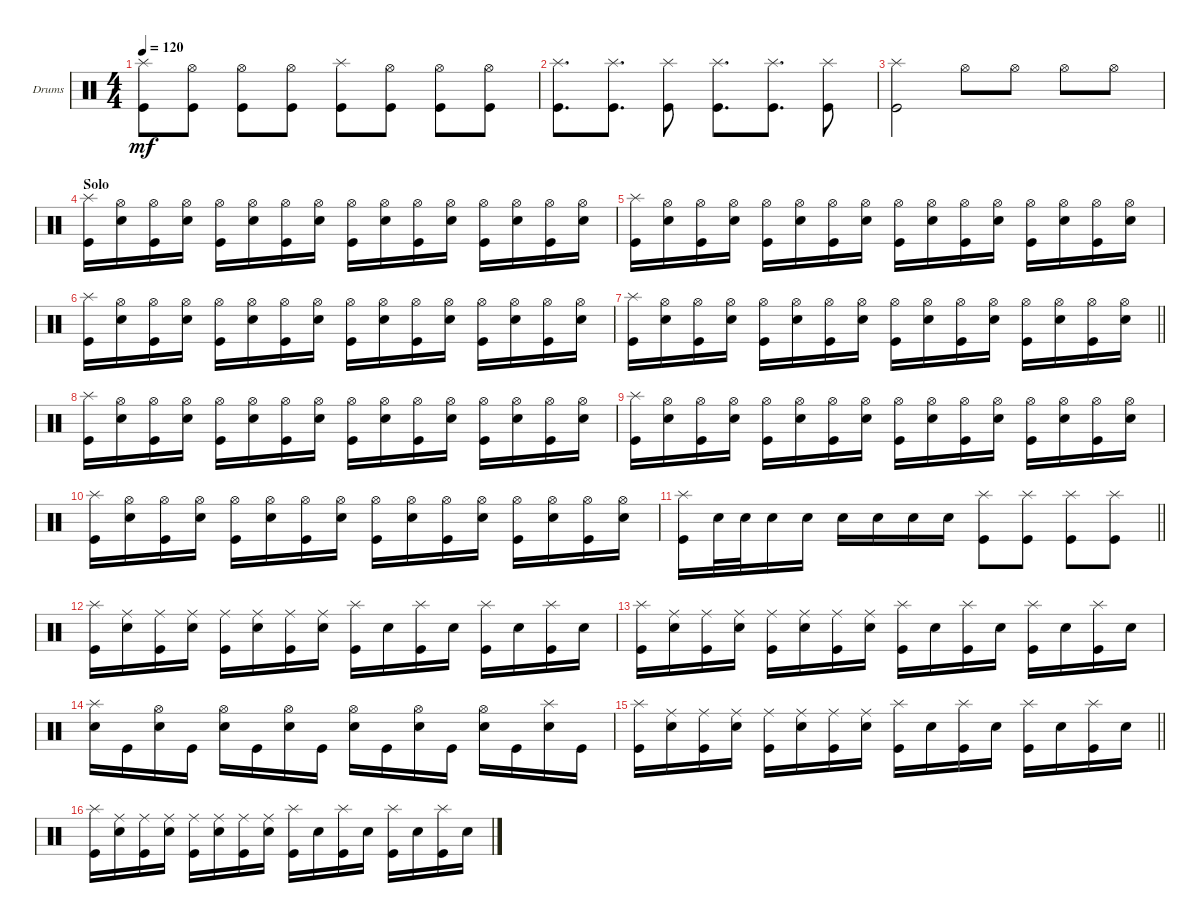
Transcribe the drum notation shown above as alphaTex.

\defaultSystemsLayout 4
\bracketExtendMode groupsimilarinstruments
\firstSystemTrackNameOrientation horizontal
\otherSystemsTrackNameOrientation horizontal
\track ("Drumkit" "Drums") {instrument percussion}
\staff {score}
\articulation defaults
\ts (4 4)
\tempo 120
\clef neutral
\ks c
("Kick (hit)" "Splash (hit)").8{dy mf} ("Kick (hit)" "Hi-Hat (open)").8 ("Kick (hit)" "Hi-Hat (open)").8 ("Kick (hit)" "Hi-Hat (open)").8 ("Kick (hit)" "Splash (hit)").8 ("Kick (hit)" "Hi-Hat (open)").8 ("Kick (hit)" "Hi-Hat (open)").8 ("Kick (hit)" "Hi-Hat (open)").8 |
("Kick (hit)" "Splash (hit)").8{d} ("Kick (hit)" "Splash (hit)").8{d} ("Kick (hit)" "Splash (hit)").8 ("Kick (hit)" "Splash (hit)").8{d} ("Kick (hit)" "Splash (hit)").8{d} ("Kick (hit)" "Splash (hit)").8 |
("Splash (hit)" "Kick (hit)").2 "Hi-Hat (open)".8 "Hi-Hat (open)".8 "Hi-Hat (open)".8 "Hi-Hat (open)".8 |
\section ("" "Solo")
("Kick (hit)" "Splash (hit)").16 ("Snare (hit) 2" "Hi-Hat (open)").16 ("Kick (hit)" "Hi-Hat (open)").16 ("Snare (hit) 2" "Hi-Hat (open)").16 ("Kick (hit)" "Hi-Hat (open)").16 ("Snare (hit) 2" "Hi-Hat (open)").16 ("Kick (hit)" "Hi-Hat (open)").16 ("Snare (hit) 2" "Hi-Hat (open)").16 ("Kick (hit)" "Hi-Hat (open)").16 ("Snare (hit) 2" "Hi-Hat (open)").16 ("Kick (hit)" "Hi-Hat (open)").16 ("Snare (hit) 2" "Hi-Hat (open)").16 ("Kick (hit)" "Hi-Hat (open)").16 ("Snare (hit) 2" "Hi-Hat (open)").16 ("Kick (hit)" "Hi-Hat (open)").16 ("Snare (hit) 2" "Hi-Hat (open)").16 |
("Kick (hit)" "Splash (hit)").16 ("Snare (hit) 2" "Hi-Hat (open)").16 ("Kick (hit)" "Hi-Hat (open)").16 ("Snare (hit) 2" "Hi-Hat (open)").16 ("Kick (hit)" "Hi-Hat (open)").16 ("Snare (hit) 2" "Hi-Hat (open)").16 ("Kick (hit)" "Hi-Hat (open)").16 ("Snare (hit) 2" "Hi-Hat (open)").16 ("Kick (hit)" "Hi-Hat (open)").16 ("Snare (hit) 2" "Hi-Hat (open)").16 ("Kick (hit)" "Hi-Hat (open)").16 ("Snare (hit) 2" "Hi-Hat (open)").16 ("Kick (hit)" "Hi-Hat (open)").16 ("Snare (hit) 2" "Hi-Hat (open)").16 ("Kick (hit)" "Hi-Hat (open)").16 ("Snare (hit) 2" "Hi-Hat (open)").16 |
("Kick (hit)" "Splash (hit)").16 ("Snare (hit) 2" "Hi-Hat (open)").16 ("Kick (hit)" "Hi-Hat (open)").16 ("Snare (hit) 2" "Hi-Hat (open)").16 ("Kick (hit)" "Hi-Hat (open)").16 ("Snare (hit) 2" "Hi-Hat (open)").16 ("Kick (hit)" "Hi-Hat (open)").16 ("Snare (hit) 2" "Hi-Hat (open)").16 ("Kick (hit)" "Hi-Hat (open)").16 ("Snare (hit) 2" "Hi-Hat (open)").16 ("Kick (hit)" "Hi-Hat (open)").16 ("Snare (hit) 2" "Hi-Hat (open)").16 ("Kick (hit)" "Hi-Hat (open)").16 ("Snare (hit) 2" "Hi-Hat (open)").16 ("Kick (hit)" "Hi-Hat (open)").16 ("Snare (hit) 2" "Hi-Hat (open)").16 |
\barLineRight lightlight
("Kick (hit)" "Splash (hit)").16 ("Snare (hit) 2" "Hi-Hat (open)").16 ("Kick (hit)" "Hi-Hat (open)").16 ("Snare (hit) 2" "Hi-Hat (open)").16 ("Kick (hit)" "Hi-Hat (open)").16 ("Snare (hit) 2" "Hi-Hat (open)").16 ("Kick (hit)" "Hi-Hat (open)").16 ("Snare (hit) 2" "Hi-Hat (open)").16 ("Kick (hit)" "Hi-Hat (open)").16 ("Snare (hit) 2" "Hi-Hat (open)").16 ("Kick (hit)" "Hi-Hat (open)").16 ("Snare (hit) 2" "Hi-Hat (open)").16 ("Kick (hit)" "Hi-Hat (open)").16 ("Snare (hit) 2" "Hi-Hat (open)").16 ("Kick (hit)" "Hi-Hat (open)").16 ("Snare (hit) 2" "Hi-Hat (open)").16 |
("Kick (hit)" "Splash (hit)").16 ("Snare (hit) 2" "Hi-Hat (open)").16 ("Kick (hit)" "Hi-Hat (open)").16 ("Snare (hit) 2" "Hi-Hat (open)").16 ("Kick (hit)" "Hi-Hat (open)").16 ("Snare (hit) 2" "Hi-Hat (open)").16 ("Kick (hit)" "Hi-Hat (open)").16 ("Snare (hit) 2" "Hi-Hat (open)").16 ("Kick (hit)" "Hi-Hat (open)").16 ("Snare (hit) 2" "Hi-Hat (open)").16 ("Kick (hit)" "Hi-Hat (open)").16 ("Snare (hit) 2" "Hi-Hat (open)").16 ("Kick (hit)" "Hi-Hat (open)").16 ("Snare (hit) 2" "Hi-Hat (open)").16 ("Kick (hit)" "Hi-Hat (open)").16 ("Snare (hit) 2" "Hi-Hat (open)").16 |
("Kick (hit)" "Splash (hit)").16 ("Snare (hit) 2" "Hi-Hat (open)").16 ("Kick (hit)" "Hi-Hat (open)").16 ("Snare (hit) 2" "Hi-Hat (open)").16 ("Kick (hit)" "Hi-Hat (open)").16 ("Snare (hit) 2" "Hi-Hat (open)").16 ("Kick (hit)" "Hi-Hat (open)").16 ("Snare (hit) 2" "Hi-Hat (open)").16 ("Kick (hit)" "Hi-Hat (open)").16 ("Snare (hit) 2" "Hi-Hat (open)").16 ("Kick (hit)" "Hi-Hat (open)").16 ("Snare (hit) 2" "Hi-Hat (open)").16 ("Kick (hit)" "Hi-Hat (open)").16 ("Snare (hit) 2" "Hi-Hat (open)").16 ("Kick (hit)" "Hi-Hat (open)").16 ("Snare (hit) 2" "Hi-Hat (open)").16 |
("Kick (hit)" "Splash (hit)").16 ("Snare (hit) 2" "Hi-Hat (open)").16 ("Kick (hit)" "Hi-Hat (open)").16 ("Snare (hit) 2" "Hi-Hat (open)").16 ("Kick (hit)" "Hi-Hat (open)").16 ("Snare (hit) 2" "Hi-Hat (open)").16 ("Kick (hit)" "Hi-Hat (open)").16 ("Snare (hit) 2" "Hi-Hat (open)").16 ("Kick (hit)" "Hi-Hat (open)").16 ("Snare (hit) 2" "Hi-Hat (open)").16 ("Kick (hit)" "Hi-Hat (open)").16 ("Snare (hit) 2" "Hi-Hat (open)").16 ("Kick (hit)" "Hi-Hat (open)").16 ("Snare (hit) 2" "Hi-Hat (open)").16 ("Kick (hit)" "Hi-Hat (open)").16 ("Snare (hit) 2" "Hi-Hat (open)").16 |
\barLineRight lightlight
("Kick (hit)" "Splash (hit)").16 "Snare (hit) 2".32 "Snare (hit) 2".32 "Snare (hit) 2".16 "Snare (hit) 2".16 "Snare (hit) 2".16 "Snare (hit) 2".16 "Snare (hit) 2".16 "Snare (hit) 2".16 ("Kick (hit)" "Splash (hit)").8 ("Kick (hit)" "Splash (hit)").8 ("Kick (hit)" "Splash (hit)").8 ("Kick (hit)" "Splash (hit)").8 |
("Kick (hit)" "Splash (hit)").16 ("Snare (hit) 2" "Ride (middle)").16 ("Kick (hit)" "Ride (middle)").16 ("Snare (hit) 2" "Ride (middle)").16 ("Kick (hit)" "Ride (middle)").16 ("Snare (hit) 2" "Ride (middle)").16 ("Kick (hit)" "Ride (middle)").16 ("Snare (hit) 2" "Ride (middle)").16 ("Kick (hit)" "Splash (hit)").16 "Snare (hit) 2".16 ("Kick (hit)" "Splash (hit)").16 "Snare (hit) 2".16 ("Kick (hit)" "Splash (hit)").16 "Snare (hit) 2".16 ("Kick (hit)" "Splash (hit)").16 "Snare (hit) 2".16 |
("Kick (hit)" "Splash (hit)").16 ("Snare (hit) 2" "Ride (middle)").16 ("Kick (hit)" "Ride (middle)").16 ("Snare (hit) 2" "Ride (middle)").16 ("Kick (hit)" "Ride (middle)").16 ("Snare (hit) 2" "Ride (middle)").16 ("Kick (hit)" "Ride (middle)").16 ("Snare (hit) 2" "Ride (middle)").16 ("Kick (hit)" "Splash (hit)").16 "Snare (hit) 2".16 ("Kick (hit)" "Splash (hit)").16 "Snare (hit) 2".16 ("Kick (hit)" "Splash (hit)").16 "Snare (hit) 2".16 ("Kick (hit)" "Splash (hit)").16 "Snare (hit) 2".16 |
("Snare (hit) 2" "Splash (hit)").16 "Kick (hit)".16 ("Snare (hit) 2" "Hi-Hat (open)").16 "Kick (hit)".16 ("Snare (hit) 2" "Hi-Hat (open)").16 "Kick (hit)".16 ("Snare (hit) 2" "Hi-Hat (open)").16 "Kick (hit)".16 ("Snare (hit) 2" "Hi-Hat (open)").16 "Kick (hit)".16 ("Snare (hit) 2" "Hi-Hat (open)").16 "Kick (hit)".16 ("Snare (hit) 2" "Hi-Hat (open)").16 "Kick (hit)".16 ("Snare (hit) 2" "Splash (hit)").16 "Kick (hit)".16 |
\barLineRight lightlight
("Kick (hit)" "Splash (hit)").16 ("Snare (hit) 2" "Ride (middle)").16 ("Kick (hit)" "Ride (middle)").16 ("Snare (hit) 2" "Ride (middle)").16 ("Kick (hit)" "Ride (middle)").16 ("Snare (hit) 2" "Ride (middle)").16 ("Kick (hit)" "Ride (middle)").16 ("Snare (hit) 2" "Ride (middle)").16 ("Kick (hit)" "Splash (hit)").16 "Snare (hit) 2".16 ("Kick (hit)" "Splash (hit)").16 "Snare (hit) 2".16 ("Kick (hit)" "Splash (hit)").16 "Snare (hit) 2".16 ("Kick (hit)" "Splash (hit)").16 "Snare (hit) 2".16 |
("Kick (hit)" "Splash (hit)").16 ("Snare (hit) 2" "Ride (middle)").16 ("Kick (hit)" "Ride (middle)").16 ("Snare (hit) 2" "Ride (middle)").16 ("Kick (hit)" "Ride (middle)").16 ("Snare (hit) 2" "Ride (middle)").16 ("Kick (hit)" "Ride (middle)").16 ("Snare (hit) 2" "Ride (middle)").16 ("Kick (hit)" "Splash (hit)").16 "Snare (hit) 2".16 ("Kick (hit)" "Splash (hit)").16 "Snare (hit) 2".16 ("Kick (hit)" "Splash (hit)").16 "Snare (hit) 2".16 ("Kick (hit)" "Splash (hit)").16 "Snare (hit) 2".16
